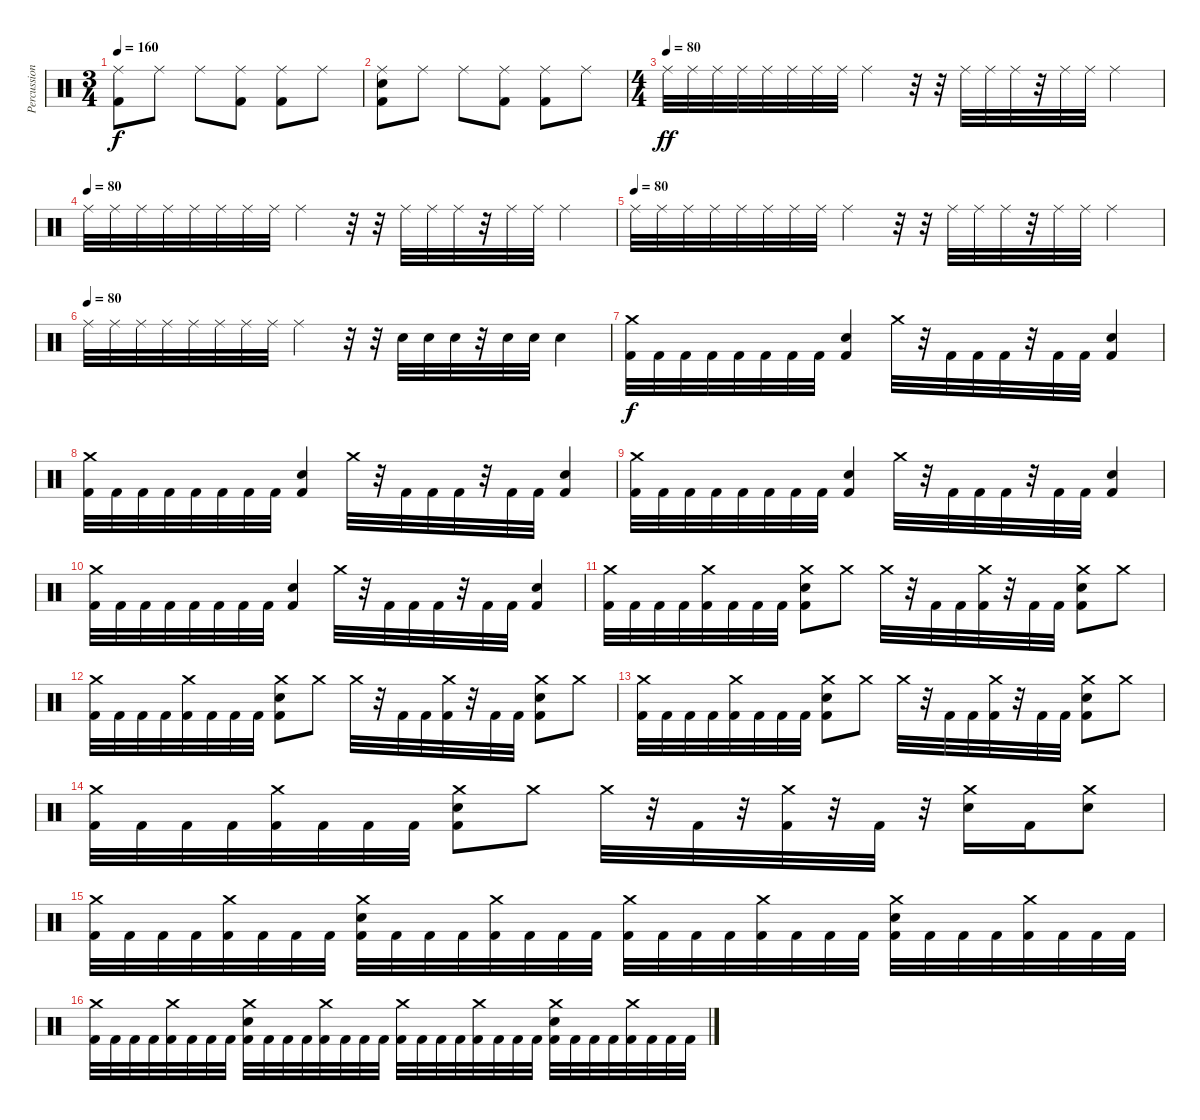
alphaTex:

\track ("Percussion" "Percussion") {instrument percussion}
\staff {score}
\articulation defaults
\ts (3 4)
\tempo 160
\clef neutral
\ks c
("Ride (middle)" "Kick (hit) 2").8{dy f} "Ride (middle)".8 "Ride (middle)".8 ("Ride (middle)" "Kick (hit) 2").8 ("Ride (middle)" "Kick (hit) 2").8 "Ride (middle)".8 |
("Ride (middle)" "Electric Snare (hit)" "Kick (hit) 2").8 "Ride (middle)".8 "Ride (middle)".8 ("Ride (middle)" "Kick (hit) 2").8 ("Ride (middle)" "Kick (hit) 2").8 "Ride (middle)".8 |
\ts (4 4)
\tempo (80)
"Ride (middle)".32{dy ff} "Ride (middle)".32 "Ride (middle)".32 "Ride (middle)".32 "Ride (middle)".32 "Ride (middle)".32 "Ride (middle)".32 "Ride (middle)".32 "Ride (middle)".4 r.32 r.32 "Ride (middle)".32 "Ride (middle)".32 "Ride (middle)".32 r.32 "Ride (middle)".32 "Ride (middle)".32 "Ride (middle)".4 |
\tempo (80)
"Ride (middle)".32 "Ride (middle)".32 "Ride (middle)".32 "Ride (middle)".32 "Ride (middle)".32 "Ride (middle)".32 "Ride (middle)".32 "Ride (middle)".32 "Ride (middle)".4 r.32 r.32 "Ride (middle)".32 "Ride (middle)".32 "Ride (middle)".32 r.32 "Ride (middle)".32 "Ride (middle)".32 "Ride (middle)".4 |
\tempo (80)
"Ride (middle)".32 "Ride (middle)".32 "Ride (middle)".32 "Ride (middle)".32 "Ride (middle)".32 "Ride (middle)".32 "Ride (middle)".32 "Ride (middle)".32 "Ride (middle)".4 r.32 r.32 "Ride (middle)".32 "Ride (middle)".32 "Ride (middle)".32 r.32 "Ride (middle)".32 "Ride (middle)".32 "Ride (middle)".4 |
\tempo (80)
"Ride (middle)".32 "Ride (middle)".32 "Ride (middle)".32 "Ride (middle)".32 "Ride (middle)".32 "Ride (middle)".32 "Ride (middle)".32 "Ride (middle)".32 "Ride (middle)".4 r.32 r.32 "Electric Snare (hit)".32 "Electric Snare (hit)".32 "Electric Snare (hit)".32 r.32 "Electric Snare (hit)".32 "Electric Snare (hit)".32 "Electric Snare (hit)".4 |
("Crash medium (hit)" "Kick (hit) 2").32{dy f} "Kick (hit) 2".32 "Kick (hit) 2".32 "Kick (hit) 2".32 "Kick (hit) 2".32 "Kick (hit) 2".32 "Kick (hit) 2".32 "Kick (hit) 2".32 ("Electric Snare (hit)" "Kick (hit) 2").4 "Crash medium (hit)".32 r.32 "Kick (hit) 2".32 "Kick (hit) 2".32 "Kick (hit) 2".32 r.32 "Kick (hit) 2".32 "Kick (hit) 2".32 ("Electric Snare (hit)" "Kick (hit) 2").4 |
("Crash medium (hit)" "Kick (hit) 2").32 "Kick (hit) 2".32 "Kick (hit) 2".32 "Kick (hit) 2".32 "Kick (hit) 2".32 "Kick (hit) 2".32 "Kick (hit) 2".32 "Kick (hit) 2".32 ("Electric Snare (hit)" "Kick (hit) 2").4 "Crash medium (hit)".32 r.32 "Kick (hit) 2".32 "Kick (hit) 2".32 "Kick (hit) 2".32 r.32 "Kick (hit) 2".32 "Kick (hit) 2".32 ("Electric Snare (hit)" "Kick (hit) 2").4 |
("Crash medium (hit)" "Kick (hit) 2").32 "Kick (hit) 2".32 "Kick (hit) 2".32 "Kick (hit) 2".32 "Kick (hit) 2".32 "Kick (hit) 2".32 "Kick (hit) 2".32 "Kick (hit) 2".32 ("Electric Snare (hit)" "Kick (hit) 2").4 "Crash medium (hit)".32 r.32 "Kick (hit) 2".32 "Kick (hit) 2".32 "Kick (hit) 2".32 r.32 "Kick (hit) 2".32 "Kick (hit) 2".32 ("Electric Snare (hit)" "Kick (hit) 2").4 |
("Crash medium (hit)" "Kick (hit) 2").32 "Kick (hit) 2".32 "Kick (hit) 2".32 "Kick (hit) 2".32 "Kick (hit) 2".32 "Kick (hit) 2".32 "Kick (hit) 2".32 "Kick (hit) 2".32 ("Electric Snare (hit)" "Kick (hit) 2").4 "Crash medium (hit)".32 r.32 "Kick (hit) 2".32 "Kick (hit) 2".32 "Kick (hit) 2".32 r.32 "Kick (hit) 2".32 "Kick (hit) 2".32 ("Electric Snare (hit)" "Kick (hit) 2").4 |
("Crash medium (hit)" "Kick (hit) 2").32 "Kick (hit) 2".32 "Kick (hit) 2".32 "Kick (hit) 2".32 ("Crash medium (hit)" "Kick (hit) 2").32 "Kick (hit) 2".32 "Kick (hit) 2".32 "Kick (hit) 2".32 ("Crash medium (hit)" "Electric Snare (hit)" "Kick (hit) 2").8 "Crash medium (hit)".8 "Crash medium (hit)".32 r.32 "Kick (hit) 2".32 "Kick (hit) 2".32 ("Crash medium (hit)" "Kick (hit) 2").32 r.32 "Kick (hit) 2".32 "Kick (hit) 2".32 ("Crash medium (hit)" "Electric Snare (hit)" "Kick (hit) 2").8 "Crash medium (hit)".8 |
("Crash medium (hit)" "Kick (hit) 2").32 "Kick (hit) 2".32 "Kick (hit) 2".32 "Kick (hit) 2".32 ("Crash medium (hit)" "Kick (hit) 2").32 "Kick (hit) 2".32 "Kick (hit) 2".32 "Kick (hit) 2".32 ("Crash medium (hit)" "Electric Snare (hit)" "Kick (hit) 2").8 "Crash medium (hit)".8 "Crash medium (hit)".32 r.32 "Kick (hit) 2".32 "Kick (hit) 2".32 ("Crash medium (hit)" "Kick (hit) 2").32 r.32 "Kick (hit) 2".32 "Kick (hit) 2".32 ("Crash medium (hit)" "Electric Snare (hit)" "Kick (hit) 2").8 "Crash medium (hit)".8 |
("Crash medium (hit)" "Kick (hit) 2").32 "Kick (hit) 2".32 "Kick (hit) 2".32 "Kick (hit) 2".32 ("Crash medium (hit)" "Kick (hit) 2").32 "Kick (hit) 2".32 "Kick (hit) 2".32 "Kick (hit) 2".32 ("Crash medium (hit)" "Electric Snare (hit)" "Kick (hit) 2").8 "Crash medium (hit)".8 "Crash medium (hit)".32 r.32 "Kick (hit) 2".32 "Kick (hit) 2".32 ("Crash medium (hit)" "Kick (hit) 2").32 r.32 "Kick (hit) 2".32 "Kick (hit) 2".32 ("Crash medium (hit)" "Electric Snare (hit)" "Kick (hit) 2").8 "Crash medium (hit)".8 |
("Crash medium (hit)" "Kick (hit) 2").32 "Kick (hit) 2".32 "Kick (hit) 2".32 "Kick (hit) 2".32 ("Crash medium (hit)" "Kick (hit) 2").32 "Kick (hit) 2".32 "Kick (hit) 2".32 "Kick (hit) 2".32 ("Crash medium (hit)" "Electric Snare (hit)" "Kick (hit) 2").8 "Crash medium (hit)".8 "Crash medium (hit)".32 r.32 "Kick (hit) 2".32 r.32 ("Crash medium (hit)" "Kick (hit) 2").32 r.32 "Kick (hit) 2".32 r.32 ("Crash medium (hit)" "Electric Snare (hit)").16 "Kick (hit) 2".16 ("Crash medium (hit)" "Electric Snare (hit)").8 |
("Crash medium (hit)" "Kick (hit) 2").32 "Kick (hit) 2".32 "Kick (hit) 2".32 "Kick (hit) 2".32 ("Crash medium (hit)" "Kick (hit) 2").32 "Kick (hit) 2".32 "Kick (hit) 2".32 "Kick (hit) 2".32 ("Crash medium (hit)" "Electric Snare (hit)" "Kick (hit) 2").32 "Kick (hit) 2".32 "Kick (hit) 2".32 "Kick (hit) 2".32 ("Crash medium (hit)" "Kick (hit) 2").32 "Kick (hit) 2".32 "Kick (hit) 2".32 "Kick (hit) 2".32 ("Crash medium (hit)" "Kick (hit) 2").32 "Kick (hit) 2".32 "Kick (hit) 2".32 "Kick (hit) 2".32 ("Crash medium (hit)" "Kick (hit) 2").32 "Kick (hit) 2".32 "Kick (hit) 2".32 "Kick (hit) 2".32 ("Crash medium (hit)" "Electric Snare (hit)" "Kick (hit) 2").32 "Kick (hit) 2".32 "Kick (hit) 2".32 "Kick (hit) 2".32 ("Crash medium (hit)" "Kick (hit) 2").32 "Kick (hit) 2".32 "Kick (hit) 2".32 "Kick (hit) 2".32 |
("Crash medium (hit)" "Kick (hit) 2").32 "Kick (hit) 2".32 "Kick (hit) 2".32 "Kick (hit) 2".32 ("Crash medium (hit)" "Kick (hit) 2").32 "Kick (hit) 2".32 "Kick (hit) 2".32 "Kick (hit) 2".32 ("Crash medium (hit)" "Electric Snare (hit)" "Kick (hit) 2").32 "Kick (hit) 2".32 "Kick (hit) 2".32 "Kick (hit) 2".32 ("Crash medium (hit)" "Kick (hit) 2").32 "Kick (hit) 2".32 "Kick (hit) 2".32 "Kick (hit) 2".32 ("Crash medium (hit)" "Kick (hit) 2").32 "Kick (hit) 2".32 "Kick (hit) 2".32 "Kick (hit) 2".32 ("Crash medium (hit)" "Kick (hit) 2").32 "Kick (hit) 2".32 "Kick (hit) 2".32 "Kick (hit) 2".32 ("Crash medium (hit)" "Electric Snare (hit)" "Kick (hit) 2").32 "Kick (hit) 2".32 "Kick (hit) 2".32 "Kick (hit) 2".32 ("Crash medium (hit)" "Kick (hit) 2").32 "Kick (hit) 2".32 "Kick (hit) 2".32 "Kick (hit) 2".32
